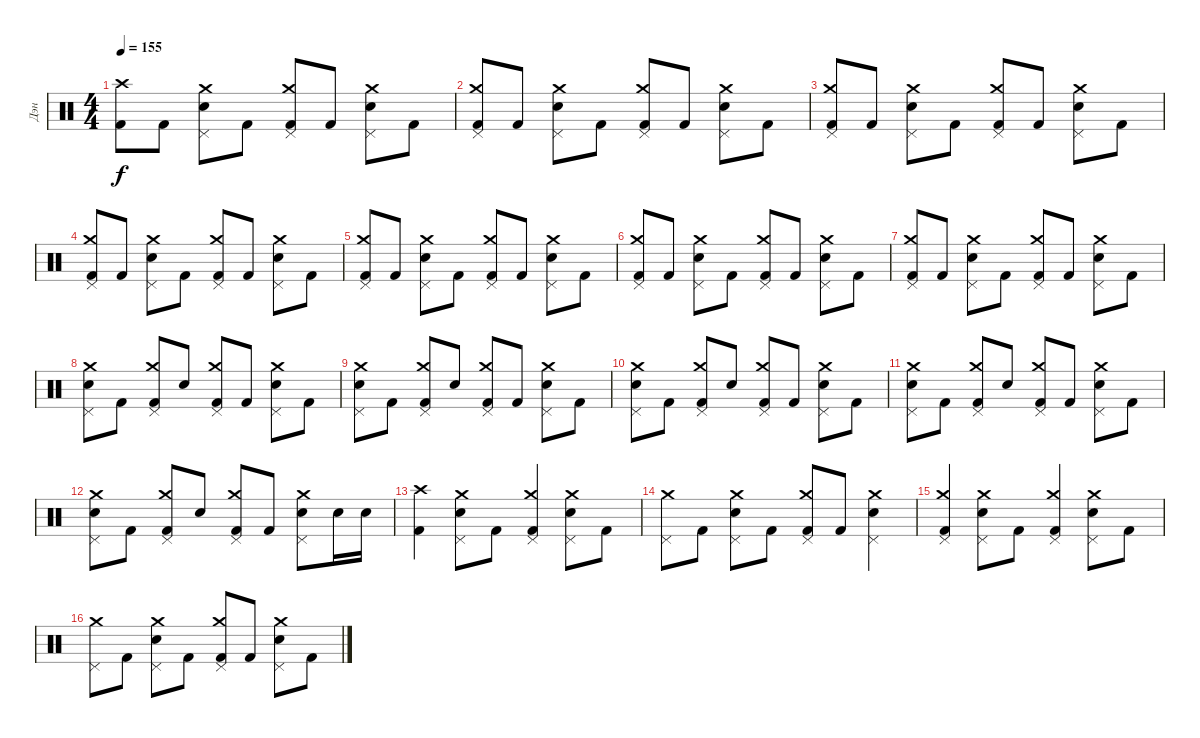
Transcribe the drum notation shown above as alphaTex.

\track ("Дэн" "Дэн") {instrument percussion}
\staff {score}
\articulation defaults
\ts (4 4)
\tempo 155
\clef neutral
\ks c
("Crash high (hit)" "Kick (hit) 2").8{dy f} "Kick (hit) 2".8 ("Crash medium (hit)" "Pedal Hi-Hat (hit)" "Snare (hit) 2").8 "Kick (hit) 2".8 ("Crash medium (hit)" "Pedal Hi-Hat (hit)" "Kick (hit) 2").8 "Kick (hit) 2".8 ("Crash medium (hit)" "Pedal Hi-Hat (hit)" "Snare (hit) 2").8 "Kick (hit) 2".8 |
("Crash medium (hit)" "Pedal Hi-Hat (hit)" "Kick (hit) 2").8 "Kick (hit) 2".8 ("Crash medium (hit)" "Pedal Hi-Hat (hit)" "Snare (hit) 2").8 "Kick (hit) 2".8 ("Crash medium (hit)" "Pedal Hi-Hat (hit)" "Kick (hit) 2").8 "Kick (hit) 2".8 ("Crash medium (hit)" "Pedal Hi-Hat (hit)" "Snare (hit) 2").8 "Kick (hit) 2".8 |
("Crash medium (hit)" "Pedal Hi-Hat (hit)" "Kick (hit) 2").8 "Kick (hit) 2".8 ("Crash medium (hit)" "Pedal Hi-Hat (hit)" "Snare (hit) 2").8 "Kick (hit) 2".8 ("Crash medium (hit)" "Pedal Hi-Hat (hit)" "Kick (hit) 2").8 "Kick (hit) 2".8 ("Crash medium (hit)" "Pedal Hi-Hat (hit)" "Snare (hit) 2").8 "Kick (hit) 2".8 |
("Crash medium (hit)" "Pedal Hi-Hat (hit)" "Kick (hit) 2").8 "Kick (hit) 2".8 ("Crash medium (hit)" "Pedal Hi-Hat (hit)" "Snare (hit) 2").8 "Kick (hit) 2".8 ("Crash medium (hit)" "Pedal Hi-Hat (hit)" "Kick (hit) 2").8 "Kick (hit) 2".8 ("Crash medium (hit)" "Pedal Hi-Hat (hit)" "Snare (hit) 2").8 "Kick (hit) 2".8 |
("Crash medium (hit)" "Pedal Hi-Hat (hit)" "Kick (hit) 2").8 "Kick (hit) 2".8 ("Crash medium (hit)" "Pedal Hi-Hat (hit)" "Snare (hit) 2").8 "Kick (hit) 2".8 ("Crash medium (hit)" "Pedal Hi-Hat (hit)" "Kick (hit) 2").8 "Kick (hit) 2".8 ("Crash medium (hit)" "Pedal Hi-Hat (hit)" "Snare (hit) 2").8 "Kick (hit) 2".8 |
("Crash medium (hit)" "Pedal Hi-Hat (hit)" "Kick (hit) 2").8 "Kick (hit) 2".8 ("Crash medium (hit)" "Pedal Hi-Hat (hit)" "Snare (hit) 2").8 "Kick (hit) 2".8 ("Crash medium (hit)" "Pedal Hi-Hat (hit)" "Kick (hit) 2").8 "Kick (hit) 2".8 ("Crash medium (hit)" "Pedal Hi-Hat (hit)" "Snare (hit) 2").8 "Kick (hit) 2".8 |
("Crash medium (hit)" "Pedal Hi-Hat (hit)" "Kick (hit) 2").8 "Kick (hit) 2".8 ("Crash medium (hit)" "Pedal Hi-Hat (hit)" "Snare (hit) 2").8 "Kick (hit) 2".8 ("Crash medium (hit)" "Pedal Hi-Hat (hit)" "Kick (hit) 2").8 "Kick (hit) 2".8 ("Crash medium (hit)" "Pedal Hi-Hat (hit)" "Snare (hit) 2").8 "Kick (hit) 2".8 |
("Crash medium (hit)" "Pedal Hi-Hat (hit)" "Snare (hit) 2").8 "Kick (hit) 2".8 ("Crash medium (hit)" "Pedal Hi-Hat (hit)" "Kick (hit) 2").8 "Snare (hit) 2".8 ("Crash medium (hit)" "Pedal Hi-Hat (hit)" "Kick (hit) 2").8 "Kick (hit) 2".8 ("Crash medium (hit)" "Pedal Hi-Hat (hit)" "Snare (hit) 2").8 "Kick (hit) 2".8 |
("Crash medium (hit)" "Pedal Hi-Hat (hit)" "Snare (hit) 2").8 "Kick (hit) 2".8 ("Crash medium (hit)" "Pedal Hi-Hat (hit)" "Kick (hit) 2").8 "Snare (hit) 2".8 ("Crash medium (hit)" "Pedal Hi-Hat (hit)" "Kick (hit) 2").8 "Kick (hit) 2".8 ("Crash medium (hit)" "Pedal Hi-Hat (hit)" "Snare (hit) 2").8 "Kick (hit) 2".8 |
("Crash medium (hit)" "Pedal Hi-Hat (hit)" "Snare (hit) 2").8 "Kick (hit) 2".8 ("Crash medium (hit)" "Pedal Hi-Hat (hit)" "Kick (hit) 2").8 "Snare (hit) 2".8 ("Crash medium (hit)" "Pedal Hi-Hat (hit)" "Kick (hit) 2").8 "Kick (hit) 2".8 ("Crash medium (hit)" "Pedal Hi-Hat (hit)" "Snare (hit) 2").8 "Kick (hit) 2".8 |
("Crash medium (hit)" "Pedal Hi-Hat (hit)" "Snare (hit) 2").8 "Kick (hit) 2".8 ("Crash medium (hit)" "Pedal Hi-Hat (hit)" "Kick (hit) 2").8 "Snare (hit) 2".8 ("Crash medium (hit)" "Pedal Hi-Hat (hit)" "Kick (hit) 2").8 "Kick (hit) 2".8 ("Crash medium (hit)" "Pedal Hi-Hat (hit)" "Snare (hit) 2").8 "Kick (hit) 2".8 |
("Crash medium (hit)" "Pedal Hi-Hat (hit)" "Snare (hit) 2").8 "Kick (hit) 2".8 ("Crash medium (hit)" "Pedal Hi-Hat (hit)" "Kick (hit) 2").8 "Snare (hit) 2".8 ("Crash medium (hit)" "Pedal Hi-Hat (hit)" "Kick (hit) 2").8 "Kick (hit) 2".8 ("Crash medium (hit)" "Pedal Hi-Hat (hit)" "Snare (hit) 2").8 "Snare (hit) 2".16 "Snare (hit) 2".16 |
("Crash high (hit)" "Kick (hit) 2").4 ("Crash medium (hit)" "Pedal Hi-Hat (hit)" "Snare (hit) 2").8 "Kick (hit) 2".8 ("Crash medium (hit)" "Pedal Hi-Hat (hit)" "Kick (hit) 2").4 ("Crash medium (hit)" "Pedal Hi-Hat (hit)" "Snare (hit) 2").8 "Kick (hit) 2".8 |
("Crash medium (hit)" "Pedal Hi-Hat (hit)").8 "Kick (hit) 2".8 ("Crash medium (hit)" "Pedal Hi-Hat (hit)" "Snare (hit) 2").8 "Kick (hit) 2".8 ("Crash medium (hit)" "Pedal Hi-Hat (hit)" "Kick (hit) 2").8 "Kick (hit) 2".8 ("Crash medium (hit)" "Pedal Hi-Hat (hit)" "Snare (hit) 2").4 |
("Crash medium (hit)" "Pedal Hi-Hat (hit)" "Kick (hit) 2").4 ("Crash medium (hit)" "Pedal Hi-Hat (hit)" "Snare (hit) 2").8 "Kick (hit) 2".8 ("Crash medium (hit)" "Pedal Hi-Hat (hit)" "Kick (hit) 2").4 ("Crash medium (hit)" "Pedal Hi-Hat (hit)" "Snare (hit) 2").8 "Kick (hit) 2".8 |
("Crash medium (hit)" "Pedal Hi-Hat (hit)").8 "Kick (hit) 2".8 ("Crash medium (hit)" "Pedal Hi-Hat (hit)" "Snare (hit) 2").8 "Kick (hit) 2".8 ("Crash medium (hit)" "Pedal Hi-Hat (hit)" "Kick (hit) 2").8 "Kick (hit) 2".8 ("Crash medium (hit)" "Pedal Hi-Hat (hit)" "Snare (hit) 2").8 "Kick (hit) 2".8
